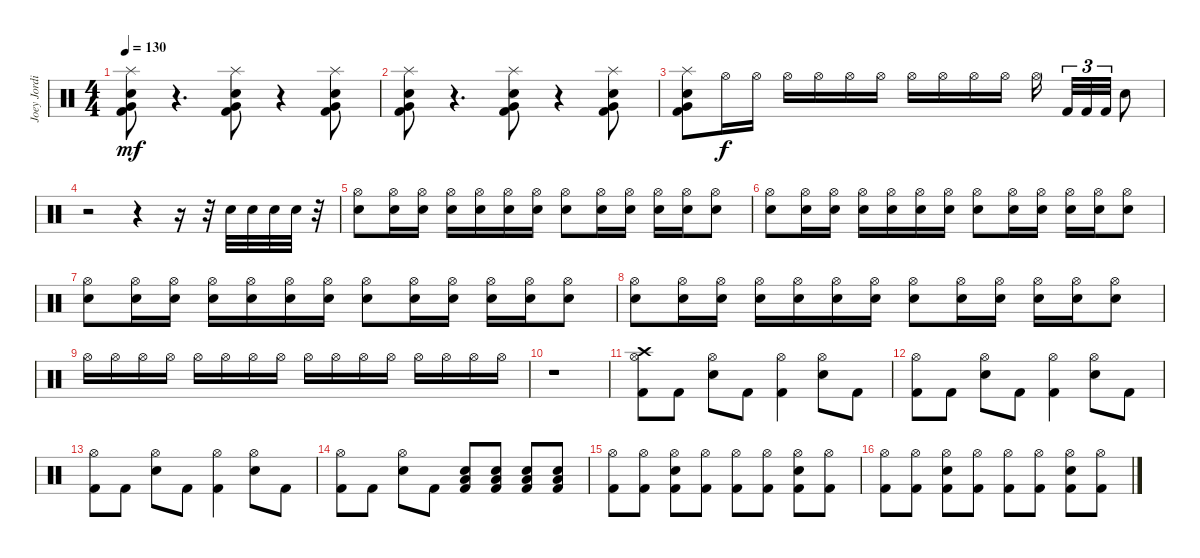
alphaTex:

\track ("Joey Jordison" "Joey Jordi") {instrument percussion}
\staff {score}
\articulation defaults
\ts (4 4)
\tempo 130
\clef neutral
\ks c
("Very Low Tom (hit)" "Kick (hit) 2" "Electric Snare (hit)" "Splash (hit)").8{dy mf} r.4{d} ("Very Low Tom (hit)" "Kick (hit) 2" "Electric Snare (hit)" "Splash (hit)").8 r.4 ("Very Low Tom (hit)" "Kick (hit) 2" "Electric Snare (hit)" "Splash (hit)").8 |
("Very Low Tom (hit)" "Kick (hit) 2" "Electric Snare (hit)" "Splash (hit)").8 r.4{d} ("Very Low Tom (hit)" "Kick (hit) 2" "Electric Snare (hit)" "Splash (hit)").8 r.4 ("Very Low Tom (hit)" "Kick (hit) 2" "Electric Snare (hit)" "Splash (hit)").8 |
("Very Low Tom (hit)" "Kick (hit) 2" "Electric Snare (hit)" "Splash (hit)").8 "Hi-Hat (open)".16{dy f} "Hi-Hat (open)".16 "Hi-Hat (open)".16 "Hi-Hat (open)".16 "Hi-Hat (open)".16 "Hi-Hat (open)".16 "Hi-Hat (open)".16 "Hi-Hat (open)".16 "Hi-Hat (open)".16 "Hi-Hat (open)".16 "Hi-Hat (open)".16{beam splitsecondary} "Kick (hit) 2".32{tu (3 2)} "Kick (hit) 2".32{tu (3 2)} "Kick (hit) 2".32{tu (3 2)} "Electric Snare (hit)".8 |
r.2 r.4 r.16 r.32 "Electric Snare (hit)".32 "Electric Snare (hit)".32 "Electric Snare (hit)".32 "Electric Snare (hit)".32 r.32 |
("Hi-Hat (open)" "Electric Snare (hit)").8 ("Hi-Hat (open)" "Electric Snare (hit)").16 ("Hi-Hat (open)" "Electric Snare (hit)").16 ("Hi-Hat (open)" "Electric Snare (hit)").16 ("Hi-Hat (open)" "Electric Snare (hit)").16 ("Hi-Hat (open)" "Electric Snare (hit)").16 ("Hi-Hat (open)" "Electric Snare (hit)").16 ("Hi-Hat (open)" "Electric Snare (hit)").8 ("Hi-Hat (open)" "Electric Snare (hit)").16 ("Hi-Hat (open)" "Electric Snare (hit)").16 ("Hi-Hat (open)" "Electric Snare (hit)").16 ("Hi-Hat (open)" "Electric Snare (hit)").16 ("Hi-Hat (open)" "Electric Snare (hit)").8 |
("Hi-Hat (open)" "Electric Snare (hit)").8 ("Hi-Hat (open)" "Electric Snare (hit)").16 ("Hi-Hat (open)" "Electric Snare (hit)").16 ("Hi-Hat (open)" "Electric Snare (hit)").16 ("Hi-Hat (open)" "Electric Snare (hit)").16 ("Hi-Hat (open)" "Electric Snare (hit)").16 ("Hi-Hat (open)" "Electric Snare (hit)").16 ("Hi-Hat (open)" "Electric Snare (hit)").8 ("Hi-Hat (open)" "Electric Snare (hit)").16 ("Hi-Hat (open)" "Electric Snare (hit)").16 ("Hi-Hat (open)" "Electric Snare (hit)").16 ("Hi-Hat (open)" "Electric Snare (hit)").16 ("Hi-Hat (open)" "Electric Snare (hit)").8 |
("Hi-Hat (open)" "Electric Snare (hit)").8 ("Hi-Hat (open)" "Electric Snare (hit)").16 ("Hi-Hat (open)" "Electric Snare (hit)").16 ("Hi-Hat (open)" "Electric Snare (hit)").16 ("Hi-Hat (open)" "Electric Snare (hit)").16 ("Hi-Hat (open)" "Electric Snare (hit)").16 ("Hi-Hat (open)" "Electric Snare (hit)").16 ("Hi-Hat (open)" "Electric Snare (hit)").8 ("Hi-Hat (open)" "Electric Snare (hit)").16 ("Hi-Hat (open)" "Electric Snare (hit)").16 ("Hi-Hat (open)" "Electric Snare (hit)").16 ("Hi-Hat (open)" "Electric Snare (hit)").16 ("Hi-Hat (open)" "Electric Snare (hit)").8 |
("Hi-Hat (open)" "Electric Snare (hit)").8 ("Hi-Hat (open)" "Electric Snare (hit)").16 ("Hi-Hat (open)" "Electric Snare (hit)").16 ("Hi-Hat (open)" "Electric Snare (hit)").16 ("Hi-Hat (open)" "Electric Snare (hit)").16 ("Hi-Hat (open)" "Electric Snare (hit)").16 ("Hi-Hat (open)" "Electric Snare (hit)").16 ("Hi-Hat (open)" "Electric Snare (hit)").8 ("Hi-Hat (open)" "Electric Snare (hit)").16 ("Hi-Hat (open)" "Electric Snare (hit)").16 ("Hi-Hat (open)" "Electric Snare (hit)").16 ("Hi-Hat (open)" "Electric Snare (hit)").16 ("Hi-Hat (open)" "Electric Snare (hit)").8 |
"Hi-Hat (open)".16 "Hi-Hat (open)".16 "Hi-Hat (open)".16 "Hi-Hat (open)".16 "Hi-Hat (open)".16 "Hi-Hat (open)".16 "Hi-Hat (open)".16 "Hi-Hat (open)".16 "Hi-Hat (open)".16 "Hi-Hat (open)".16 "Hi-Hat (open)".16 "Hi-Hat (open)".16 "Hi-Hat (open)".16 "Hi-Hat (open)".16 "Hi-Hat (open)".16 "Hi-Hat (open)".16 |
r.1 |
("Hi-Hat (open)" "Crash high (hit)" "Kick (hit) 2").8 "Kick (hit) 2".8 ("Hi-Hat (open)" "Electric Snare (hit)").8 "Kick (hit) 2".8 ("Hi-Hat (open)" "Kick (hit) 2").4 ("Hi-Hat (open)" "Electric Snare (hit)").8 "Kick (hit) 2".8 |
("Hi-Hat (open)" "Kick (hit) 2").8 "Kick (hit) 2".8 ("Hi-Hat (open)" "Electric Snare (hit)").8 "Kick (hit) 2".8 ("Hi-Hat (open)" "Kick (hit) 2").4 ("Hi-Hat (open)" "Electric Snare (hit)").8 "Kick (hit) 2".8 |
("Hi-Hat (open)" "Kick (hit) 2").8 "Kick (hit) 2".8 ("Hi-Hat (open)" "Electric Snare (hit)").8 "Kick (hit) 2".8 ("Hi-Hat (open)" "Kick (hit) 2").4 ("Hi-Hat (open)" "Electric Snare (hit)").8 "Kick (hit) 2".8 |
("Hi-Hat (open)" "Kick (hit) 2").8 "Kick (hit) 2".8 ("Hi-Hat (open)" "Electric Snare (hit)").8 "Kick (hit) 2".8 ("Kick (hit) 2" "Electric Snare (hit)" "Low Floor Tom (hit)").8 ("Kick (hit) 2" "Electric Snare (hit)" "Low Floor Tom (hit)").8 ("Kick (hit) 2" "Electric Snare (hit)" "Low Floor Tom (hit)").8 ("Kick (hit) 2" "Electric Snare (hit)" "Low Floor Tom (hit)").8 |
("Hi-Hat (open)" "Kick (hit) 2").8 ("Hi-Hat (open)" "Kick (hit) 2").8 ("Hi-Hat (open)" "Electric Snare (hit)" "Kick (hit) 2").8 ("Hi-Hat (open)" "Kick (hit) 2").8 ("Hi-Hat (open)" "Kick (hit) 2").8 ("Hi-Hat (open)" "Kick (hit) 2").8 ("Hi-Hat (open)" "Electric Snare (hit)" "Kick (hit) 2").8 ("Hi-Hat (open)" "Kick (hit) 2").8 |
("Hi-Hat (open)" "Kick (hit) 2").8 ("Hi-Hat (open)" "Kick (hit) 2").8 ("Hi-Hat (open)" "Electric Snare (hit)" "Kick (hit) 2").8 ("Hi-Hat (open)" "Kick (hit) 2").8 ("Hi-Hat (open)" "Kick (hit) 2").8 ("Hi-Hat (open)" "Kick (hit) 2").8 ("Hi-Hat (open)" "Electric Snare (hit)" "Kick (hit) 2").8 ("Hi-Hat (open)" "Kick (hit) 2").8
